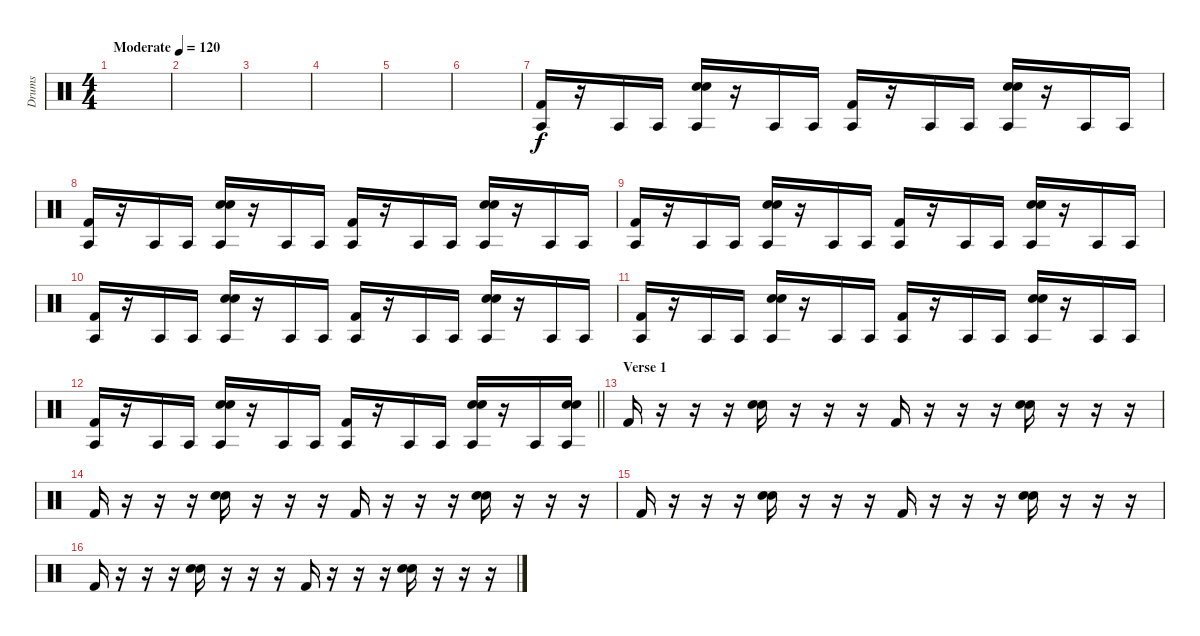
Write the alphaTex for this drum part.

\track ("Drums" "Drums") {instrument percussion}
\staff {score}
\articulation defaults
\ts (4 4)
\tempo (120 "Moderate")
\clef neutral
\ks c
|
|
|
|
|
|
("Kick (hit) 2" "Agogo tow (hit)").16 r.16 "Agogo tow (hit)".16 "Agogo tow (hit)".16 ("Snare (hit) 2" "Hand Clap (hit)" "Agogo tow (hit)").16 r.16 "Agogo tow (hit)".16 "Agogo tow (hit)".16 ("Kick (hit) 2" "Agogo tow (hit)").16 r.16 "Agogo tow (hit)".16 "Agogo tow (hit)".16 ("Snare (hit) 2" "Hand Clap (hit)" "Agogo tow (hit)").16 r.16 "Agogo tow (hit)".16 "Agogo tow (hit)".16 |
("Kick (hit) 2" "Agogo tow (hit)").16 r.16 "Agogo tow (hit)".16 "Agogo tow (hit)".16 ("Snare (hit) 2" "Hand Clap (hit)" "Agogo tow (hit)").16 r.16 "Agogo tow (hit)".16 "Agogo tow (hit)".16 ("Kick (hit) 2" "Agogo tow (hit)").16 r.16 "Agogo tow (hit)".16 "Agogo tow (hit)".16 ("Snare (hit) 2" "Hand Clap (hit)" "Agogo tow (hit)").16 r.16 "Agogo tow (hit)".16 "Agogo tow (hit)".16 |
("Kick (hit) 2" "Agogo tow (hit)").16 r.16 "Agogo tow (hit)".16 "Agogo tow (hit)".16 ("Snare (hit) 2" "Hand Clap (hit)" "Agogo tow (hit)").16 r.16 "Agogo tow (hit)".16 "Agogo tow (hit)".16 ("Kick (hit) 2" "Agogo tow (hit)").16 r.16 "Agogo tow (hit)".16 "Agogo tow (hit)".16 ("Snare (hit) 2" "Hand Clap (hit)" "Agogo tow (hit)").16 r.16 "Agogo tow (hit)".16 "Agogo tow (hit)".16 |
("Kick (hit) 2" "Agogo tow (hit)").16 r.16 "Agogo tow (hit)".16 "Agogo tow (hit)".16 ("Snare (hit) 2" "Hand Clap (hit)" "Agogo tow (hit)").16 r.16 "Agogo tow (hit)".16 "Agogo tow (hit)".16 ("Kick (hit) 2" "Agogo tow (hit)").16 r.16 "Agogo tow (hit)".16 "Agogo tow (hit)".16 ("Snare (hit) 2" "Hand Clap (hit)" "Agogo tow (hit)").16 r.16 "Agogo tow (hit)".16 "Agogo tow (hit)".16 |
("Kick (hit) 2" "Agogo tow (hit)").16 r.16 "Agogo tow (hit)".16 "Agogo tow (hit)".16 ("Snare (hit) 2" "Hand Clap (hit)" "Agogo tow (hit)").16 r.16 "Agogo tow (hit)".16 "Agogo tow (hit)".16 ("Kick (hit) 2" "Agogo tow (hit)").16 r.16 "Agogo tow (hit)".16 "Agogo tow (hit)".16 ("Snare (hit) 2" "Hand Clap (hit)" "Agogo tow (hit)").16 r.16 "Agogo tow (hit)".16 "Agogo tow (hit)".16 |
\barLineRight lightlight
("Kick (hit) 2" "Agogo tow (hit)").16 r.16 "Agogo tow (hit)".16 "Agogo tow (hit)".16 ("Snare (hit) 2" "Hand Clap (hit)" "Agogo tow (hit)").16 r.16 "Agogo tow (hit)".16 "Agogo tow (hit)".16 ("Kick (hit) 2" "Agogo tow (hit)").16 r.16 "Agogo tow (hit)".16 "Agogo tow (hit)".16 ("Snare (hit) 2" "Hand Clap (hit)" "Agogo tow (hit)").16 r.16 "Agogo tow (hit)".16 ("Snare (hit) 2" "Hand Clap (hit)" "Agogo tow (hit)").16 |
\section ("" "Verse 1")
"Kick (hit) 2".16 r.16 r.16 r.16 ("Snare (hit) 2" "Hand Clap (hit)").16 r.16 r.16 r.16 "Kick (hit) 2".16 r.16 r.16 r.16 ("Hand Clap (hit)" "Snare (hit) 2").16 r.16 r.16 r.16 |
"Kick (hit) 2".16 r.16 r.16 r.16 ("Snare (hit) 2" "Hand Clap (hit)").16 r.16 r.16 r.16 "Kick (hit) 2".16 r.16 r.16 r.16 ("Hand Clap (hit)" "Snare (hit) 2").16 r.16 r.16 r.16 |
"Kick (hit) 2".16 r.16 r.16 r.16 ("Snare (hit) 2" "Hand Clap (hit)").16 r.16 r.16 r.16 "Kick (hit) 2".16 r.16 r.16 r.16 ("Hand Clap (hit)" "Snare (hit) 2").16 r.16 r.16 r.16 |
"Kick (hit) 2".16 r.16 r.16 r.16 ("Snare (hit) 2" "Hand Clap (hit)").16 r.16 r.16 r.16 "Kick (hit) 2".16 r.16 r.16 r.16 ("Hand Clap (hit)" "Snare (hit) 2").16 r.16 r.16 r.16
